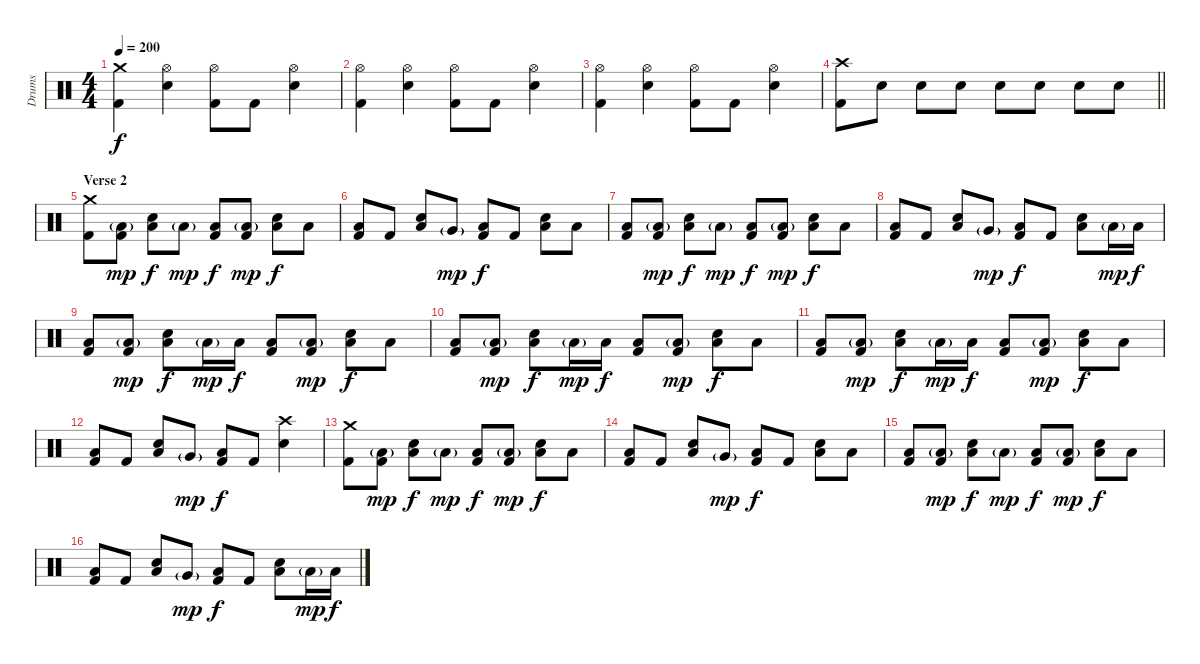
\track ("Drums" "Drums") {instrument percussion}
\staff {score}
\articulation defaults
\ts (4 4)
\tempo 200
\clef neutral
\ks c
("Crash medium (hit)" "Kick (hit) 2").4{dy f} ("Hi-Hat (open)" "Electric Snare (hit)").4 ("Hi-Hat (open)" "Kick (hit) 2").8 "Kick (hit) 2".8 ("Hi-Hat (open)" "Electric Snare (hit)").4 |
("Hi-Hat (open)" "Kick (hit) 2").4 ("Hi-Hat (open)" "Electric Snare (hit)").4 ("Hi-Hat (open)" "Kick (hit) 2").8 "Kick (hit) 2".8 ("Hi-Hat (open)" "Electric Snare (hit)").4 |
("Hi-Hat (open)" "Kick (hit) 2").4 ("Hi-Hat (open)" "Electric Snare (hit)").4 ("Hi-Hat (open)" "Kick (hit) 2").8 "Kick (hit) 2".8 ("Hi-Hat (open)" "Electric Snare (hit)").4 |
\barLineRight lightlight
("Crash high (hit)" "Kick (hit) 2").8 "Electric Snare (hit)".8 "Electric Snare (hit)".8 "Electric Snare (hit)".8 "Electric Snare (hit)".8 "Electric Snare (hit)".8 "Electric Snare (hit)".8 "Electric Snare (hit)".8 |
\section ("" "Verse 2")
("Crash medium (hit)" "Kick (hit) 2").8 ("Low Floor Tom (hit)"{g} "Kick (hit) 2").8{dy mp} ("Low Floor Tom (hit)" "Electric Snare (hit)").8{dy f} "Low Floor Tom (hit)"{g}.8{dy mp} ("Low Floor Tom (hit)" "Kick (hit) 2").8{dy f} ("Low Floor Tom (hit)"{g} "Kick (hit) 2").8{dy mp} ("Low Floor Tom (hit)" "Electric Snare (hit)").8{dy f} "Low Floor Tom (hit)".8 |
("Low Floor Tom (hit)" "Kick (hit) 2").8 "Kick (hit) 2".8 ("Low Floor Tom (hit)" "Electric Snare (hit)").8 "Very Low Tom (hit)"{g}.8{dy mp} ("Low Floor Tom (hit)" "Kick (hit) 2").8{dy f} "Kick (hit) 2".8 ("Low Floor Tom (hit)" "Electric Snare (hit)").8 "Low Floor Tom (hit)".8 |
("Low Floor Tom (hit)" "Kick (hit) 2").8 ("Low Floor Tom (hit)"{g} "Kick (hit) 2").8{dy mp} ("Low Floor Tom (hit)" "Electric Snare (hit)").8{dy f} "Low Floor Tom (hit)"{g}.8{dy mp} ("Low Floor Tom (hit)" "Kick (hit) 2").8{dy f} ("Low Floor Tom (hit)"{g} "Kick (hit) 2").8{dy mp} ("Low Floor Tom (hit)" "Electric Snare (hit)").8{dy f} "Low Floor Tom (hit)".8 |
("Low Floor Tom (hit)" "Kick (hit) 2").8 "Kick (hit) 2".8 ("Low Floor Tom (hit)" "Electric Snare (hit)").8 "Very Low Tom (hit)"{g}.8{dy mp} ("Low Floor Tom (hit)" "Kick (hit) 2").8{dy f} "Kick (hit) 2".8 ("Low Floor Tom (hit)" "Electric Snare (hit)").8 "Low Floor Tom (hit)"{g}.16{dy mp} "Low Floor Tom (hit)".16{dy f} |
("Low Floor Tom (hit)" "Kick (hit) 2").8 ("Low Floor Tom (hit)"{g} "Kick (hit) 2").8{dy mp} ("Low Floor Tom (hit)" "Electric Snare (hit)").8{dy f} "Low Floor Tom (hit)"{g}.16{dy mp} "Low Floor Tom (hit)".16{dy f} ("Low Floor Tom (hit)" "Kick (hit) 2").8 ("Low Floor Tom (hit)"{g} "Kick (hit) 2").8{dy mp} ("Low Floor Tom (hit)" "Electric Snare (hit)").8{dy f} "Low Floor Tom (hit)".8 |
("Low Floor Tom (hit)" "Kick (hit) 2").8 ("Low Floor Tom (hit)"{g} "Kick (hit) 2").8{dy mp} ("Low Floor Tom (hit)" "Electric Snare (hit)").8{dy f} "Low Floor Tom (hit)"{g}.16{dy mp} "Low Floor Tom (hit)".16{dy f} ("Low Floor Tom (hit)" "Kick (hit) 2").8 ("Low Floor Tom (hit)"{g} "Kick (hit) 2").8{dy mp} ("Low Floor Tom (hit)" "Electric Snare (hit)").8{dy f} "Low Floor Tom (hit)".8 |
("Low Floor Tom (hit)" "Kick (hit) 2").8 ("Low Floor Tom (hit)"{g} "Kick (hit) 2").8{dy mp} ("Low Floor Tom (hit)" "Electric Snare (hit)").8{dy f} "Low Floor Tom (hit)"{g}.16{dy mp} "Low Floor Tom (hit)".16{dy f} ("Low Floor Tom (hit)" "Kick (hit) 2").8 ("Low Floor Tom (hit)"{g} "Kick (hit) 2").8{dy mp} ("Low Floor Tom (hit)" "Electric Snare (hit)").8{dy f} "Low Floor Tom (hit)".8 |
("Low Floor Tom (hit)" "Kick (hit) 2").8 "Kick (hit) 2".8 ("Low Floor Tom (hit)" "Electric Snare (hit)").8 "Very Low Tom (hit)"{g}.8{dy mp} ("Low Floor Tom (hit)" "Kick (hit) 2").8{dy f} "Kick (hit) 2".8 ("Crash high (hit)" "Electric Snare (hit)").4 |
("Crash medium (hit)" "Kick (hit) 2").8 ("Low Floor Tom (hit)"{g} "Kick (hit) 2").8{dy mp} ("Low Floor Tom (hit)" "Electric Snare (hit)").8{dy f} "Low Floor Tom (hit)"{g}.8{dy mp} ("Low Floor Tom (hit)" "Kick (hit) 2").8{dy f} ("Low Floor Tom (hit)"{g} "Kick (hit) 2").8{dy mp} ("Low Floor Tom (hit)" "Electric Snare (hit)").8{dy f} "Low Floor Tom (hit)".8 |
("Low Floor Tom (hit)" "Kick (hit) 2").8 "Kick (hit) 2".8 ("Low Floor Tom (hit)" "Electric Snare (hit)").8 "Very Low Tom (hit)"{g}.8{dy mp} ("Low Floor Tom (hit)" "Kick (hit) 2").8{dy f} "Kick (hit) 2".8 ("Low Floor Tom (hit)" "Electric Snare (hit)").8 "Low Floor Tom (hit)".8 |
("Low Floor Tom (hit)" "Kick (hit) 2").8 ("Low Floor Tom (hit)"{g} "Kick (hit) 2").8{dy mp} ("Low Floor Tom (hit)" "Electric Snare (hit)").8{dy f} "Low Floor Tom (hit)"{g}.8{dy mp} ("Low Floor Tom (hit)" "Kick (hit) 2").8{dy f} ("Low Floor Tom (hit)"{g} "Kick (hit) 2").8{dy mp} ("Low Floor Tom (hit)" "Electric Snare (hit)").8{dy f} "Low Floor Tom (hit)".8 |
("Low Floor Tom (hit)" "Kick (hit) 2").8 "Kick (hit) 2".8 ("Low Floor Tom (hit)" "Electric Snare (hit)").8 "Very Low Tom (hit)"{g}.8{dy mp} ("Low Floor Tom (hit)" "Kick (hit) 2").8{dy f} "Kick (hit) 2".8 ("Low Floor Tom (hit)" "Electric Snare (hit)").8 "Low Floor Tom (hit)"{g}.16{dy mp} "Low Floor Tom (hit)".16{dy f}
